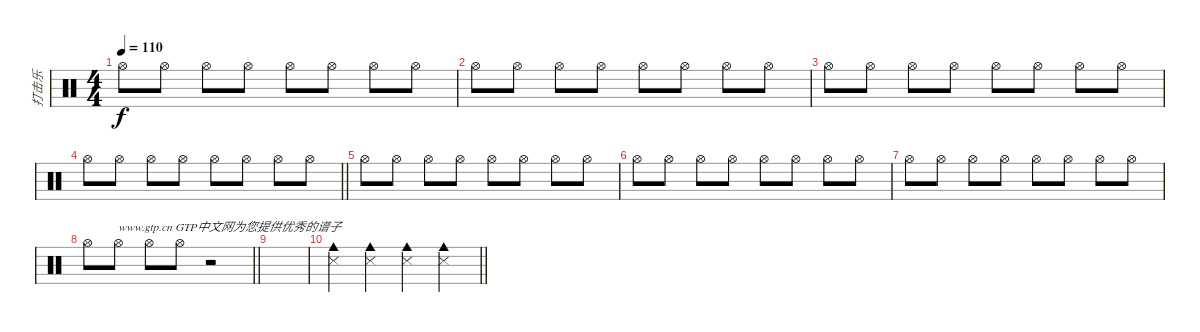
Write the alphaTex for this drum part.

\track ("打击乐" "打击乐") {instrument percussion}
\staff {score}
\articulation defaults
\ts (4 4)
\tempo 110
\clef neutral
\ks c "Hi-Hat (open)".8{dy f} "Hi-Hat (open)".8 "Hi-Hat (open)".8 "Hi-Hat (open)".8 "Hi-Hat (open)".8 "Hi-Hat (open)".8 "Hi-Hat (open)".8 "Hi-Hat (open)".8
|
"Hi-Hat (open)".8 "Hi-Hat (open)".8 "Hi-Hat (open)".8 "Hi-Hat (open)".8 "Hi-Hat (open)".8 "Hi-Hat (open)".8 "Hi-Hat (open)".8 "Hi-Hat (open)".8 |
"Hi-Hat (open)".8 "Hi-Hat (open)".8 "Hi-Hat (open)".8 "Hi-Hat (open)".8 "Hi-Hat (open)".8 "Hi-Hat (open)".8 "Hi-Hat (open)".8 "Hi-Hat (open)".8 |
\barLineRight lightlight "Hi-Hat (open)".8 "Hi-Hat (open)".8 "Hi-Hat (open)".8 "Hi-Hat (open)".8 "Hi-Hat (open)".8 "Hi-Hat (open)".8 "Hi-Hat (open)".8 "Hi-Hat (open)".8
|
"Hi-Hat (open)".8 "Hi-Hat (open)".8 "Hi-Hat (open)".8 "Hi-Hat (open)".8 "Hi-Hat (open)".8 "Hi-Hat (open)".8 "Hi-Hat (open)".8 "Hi-Hat (open)".8 |
"Hi-Hat (open)".8 "Hi-Hat (open)".8 "Hi-Hat (open)".8 "Hi-Hat (open)".8 "Hi-Hat (open)".8 "Hi-Hat (open)".8 "Hi-Hat (open)".8 "Hi-Hat (open)".8 |
"Hi-Hat (open)".8 "Hi-Hat (open)".8 "Hi-Hat (open)".8 "Hi-Hat (open)".8 "Hi-Hat (open)".8 "Hi-Hat (open)".8 "Hi-Hat (open)".8 "Hi-Hat (open)".8 |
\barLineRight lightlight "Hi-Hat (open)".8 "Hi-Hat (open)".8{txt "www.gtp.cn GTP中文网为您提供优秀的谱子"} "Hi-Hat (open)".8 "Hi-Hat (open)".8
r.2 |
|
\barLineRight lightlight
("Cowbell medium (hit)" "Snare (side stick) 3").4 ("Cowbell medium (hit)" "Snare (side stick) 3").4 ("Cowbell medium (hit)" "Snare (side stick) 3").4 ("Cowbell medium (hit)" "Snare (side stick) 3").4
